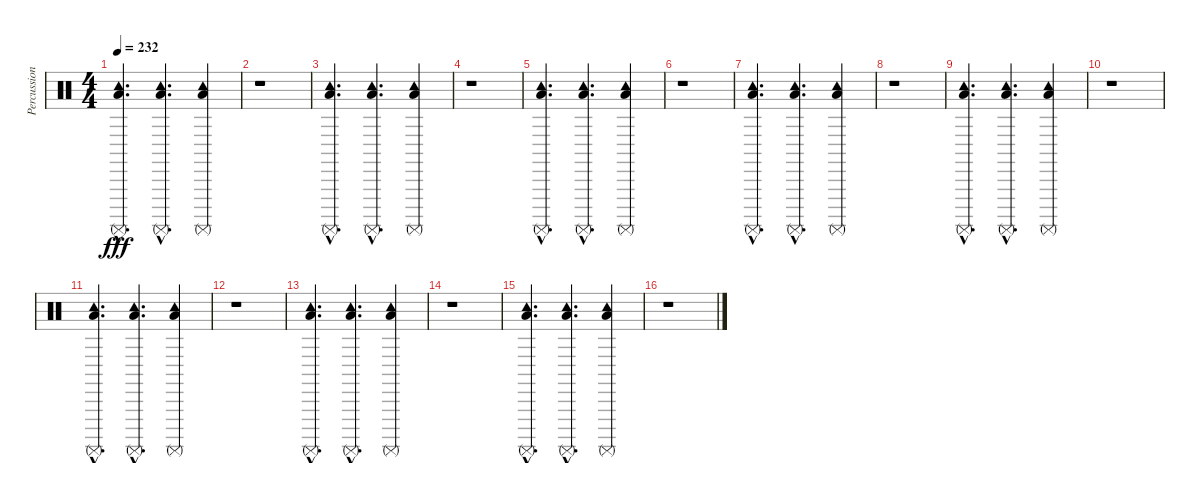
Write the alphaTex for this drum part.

\track ("Percussion" "Percussion") {instrument percussion}
\staff {score}
\articulation defaults
\ts (4 4)
\section ("" "")
\tempo 232
\clef neutral
\ks c
("Tambourine (hit)"{hac} "Low Floor Tom (hit)"{hac} "Surdo (mute)"{hac}).4{d dy fff} ("Tambourine (hit)"{hac} "Low Floor Tom (hit)"{hac} "Surdo (mute)"{hac}).4{d} ("Tambourine (hit)" "Low Floor Tom (hit)" "Surdo (mute)").4 |
r.1 |
("Tambourine (hit)"{hac} "Low Floor Tom (hit)"{hac} "Surdo (mute)"{hac}).4{d} ("Tambourine (hit)"{hac} "Low Floor Tom (hit)"{hac} "Surdo (mute)"{hac}).4{d} ("Tambourine (hit)" "Low Floor Tom (hit)" "Surdo (mute)").4 |
r.1 |
("Tambourine (hit)"{hac} "Low Floor Tom (hit)"{hac} "Surdo (mute)"{hac}).4{d} ("Tambourine (hit)"{hac} "Low Floor Tom (hit)"{hac} "Surdo (mute)"{hac}).4{d} ("Tambourine (hit)" "Low Floor Tom (hit)" "Surdo (mute)").4 |
r.1 |
("Tambourine (hit)"{hac} "Low Floor Tom (hit)"{hac} "Surdo (mute)"{hac}).4{d} ("Tambourine (hit)"{hac} "Low Floor Tom (hit)"{hac} "Surdo (mute)"{hac}).4{d} ("Tambourine (hit)" "Low Floor Tom (hit)" "Surdo (mute)").4 |
r.1 |
("Tambourine (hit)"{hac} "Low Floor Tom (hit)"{hac} "Surdo (mute)"{hac}).4{d} ("Tambourine (hit)"{hac} "Low Floor Tom (hit)"{hac} "Surdo (mute)"{hac}).4{d} ("Tambourine (hit)" "Low Floor Tom (hit)" "Surdo (mute)").4 |
r.1 |
("Tambourine (hit)"{hac} "Low Floor Tom (hit)"{hac} "Surdo (mute)"{hac}).4{d} ("Tambourine (hit)"{hac} "Low Floor Tom (hit)"{hac} "Surdo (mute)"{hac}).4{d} ("Tambourine (hit)" "Low Floor Tom (hit)" "Surdo (mute)").4 |
r.1 |
("Tambourine (hit)"{hac} "Low Floor Tom (hit)"{hac} "Surdo (mute)"{hac}).4{d} ("Tambourine (hit)"{hac} "Low Floor Tom (hit)"{hac} "Surdo (mute)"{hac}).4{d} ("Tambourine (hit)" "Low Floor Tom (hit)" "Surdo (mute)").4 |
r.1 |
("Tambourine (hit)"{hac} "Low Floor Tom (hit)"{hac} "Surdo (mute)"{hac}).4{d} ("Tambourine (hit)"{hac} "Low Floor Tom (hit)"{hac} "Surdo (mute)"{hac}).4{d} ("Tambourine (hit)" "Low Floor Tom (hit)" "Surdo (mute)").4 |
r.1
